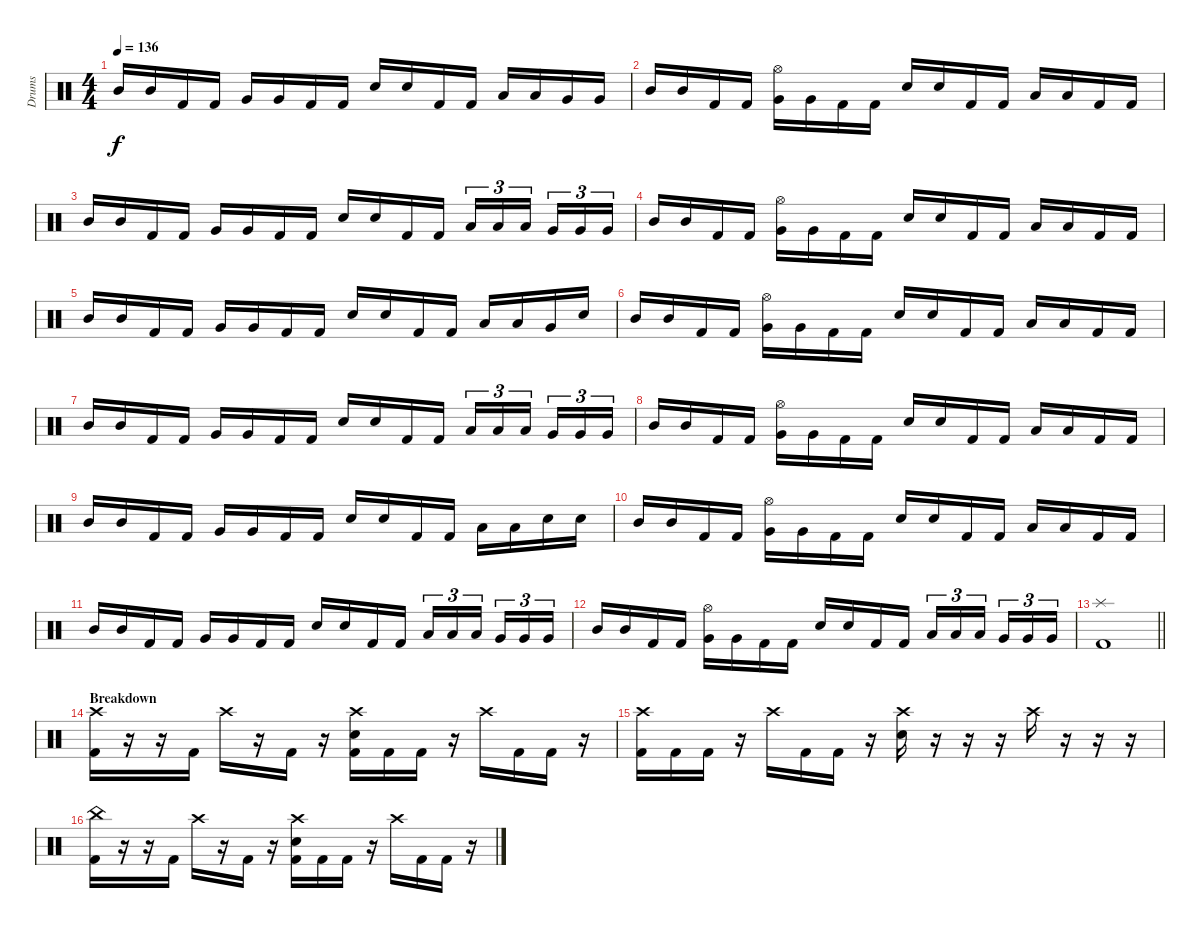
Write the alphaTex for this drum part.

\track ("Drums" "Drums") {instrument percussion}
\staff {score}
\articulation defaults
\ts (4 4)
\tempo 136
\clef neutral
\ks c "Mid Tom (hit)".16{dy f} "Mid Tom (hit)".16 "Kick (hit) 2".16 "Kick (hit) 2".16 "Very Low Tom (hit)".16 "Very Low Tom (hit)".16 "Kick (hit) 2".16 "Kick (hit) 2".16 "Electric Snare (hit)".16 "Electric Snare (hit)".16 "Kick (hit) 2".16 "Kick (hit) 2".16 "Low Tom (hit)".16 "Low Tom (hit)".16 "Very Low Tom (hit)".16 "Very Low Tom (hit)".16
|
"Mid Tom (hit)".16 "Mid Tom (hit)".16 "Kick (hit) 2".16 "Kick (hit) 2".16 ("Hi-Hat (open)" "Very Low Tom (hit)").16 "Very Low Tom (hit)".16 "Kick (hit) 2".16 "Kick (hit) 2".16 "Electric Snare (hit)".16 "Electric Snare (hit)".16 "Kick (hit) 2".16 "Kick (hit) 2".16 "Low Floor Tom (hit)".16 "Low Floor Tom (hit)".16 "Kick (hit) 2".16 "Kick (hit) 2".16 |
"Mid Tom (hit)".16 "Mid Tom (hit)".16 "Kick (hit) 2".16 "Kick (hit) 2".16 "Very Low Tom (hit)".16 "Very Low Tom (hit)".16 "Kick (hit) 2".16 "Kick (hit) 2".16 "Electric Snare (hit)".16 "Electric Snare (hit)".16 "Kick (hit) 2".16 "Kick (hit) 2".16 "Low Tom (hit)".16{tu (3 2)} "Low Tom (hit)".16{tu (3 2)} "Low Tom (hit)".16{tu (3 2) beam splitsecondary} "Very Low Tom (hit)".16{tu (3 2)} "Very Low Tom (hit)".16{tu (3 2)} "Very Low Tom (hit)".16{tu (3 2)} |
"Mid Tom (hit)".16 "Mid Tom (hit)".16 "Kick (hit) 2".16 "Kick (hit) 2".16 ("Hi-Hat (open)" "Very Low Tom (hit)").16 "Very Low Tom (hit)".16 "Kick (hit) 2".16 "Kick (hit) 2".16 "Electric Snare (hit)".16 "Electric Snare (hit)".16 "Kick (hit) 2".16 "Kick (hit) 2".16 "Low Floor Tom (hit)".16 "Low Floor Tom (hit)".16 "Kick (hit) 2".16 "Kick (hit) 2".16 |
"Mid Tom (hit)".16 "Mid Tom (hit)".16 "Kick (hit) 2".16 "Kick (hit) 2".16 "Very Low Tom (hit)".16 "Very Low Tom (hit)".16 "Kick (hit) 2".16 "Kick (hit) 2".16 "Electric Snare (hit)".16 "Electric Snare (hit)".16 "Kick (hit) 2".16 "Kick (hit) 2".16 "Low Tom (hit)".16 "Low Tom (hit)".16 "Very Low Tom (hit)".16 "Electric Snare (hit)".16 |
"Mid Tom (hit)".16 "Mid Tom (hit)".16 "Kick (hit) 2".16 "Kick (hit) 2".16 ("Hi-Hat (open)" "Very Low Tom (hit)").16 "Very Low Tom (hit)".16 "Kick (hit) 2".16 "Kick (hit) 2".16 "Electric Snare (hit)".16 "Electric Snare (hit)".16 "Kick (hit) 2".16 "Kick (hit) 2".16 "Low Floor Tom (hit)".16 "Low Floor Tom (hit)".16 "Kick (hit) 2".16 "Kick (hit) 2".16 |
"Mid Tom (hit)".16 "Mid Tom (hit)".16 "Kick (hit) 2".16 "Kick (hit) 2".16 "Very Low Tom (hit)".16 "Very Low Tom (hit)".16 "Kick (hit) 2".16 "Kick (hit) 2".16 "Electric Snare (hit)".16 "Electric Snare (hit)".16 "Kick (hit) 2".16 "Kick (hit) 2".16 "Low Tom (hit)".16{tu (3 2)} "Low Tom (hit)".16{tu (3 2)} "Low Tom (hit)".16{tu (3 2) beam splitsecondary} "Very Low Tom (hit)".16{tu (3 2)} "Very Low Tom (hit)".16{tu (3 2)} "Very Low Tom (hit)".16{tu (3 2)} |
"Mid Tom (hit)".16 "Mid Tom (hit)".16 "Kick (hit) 2".16 "Kick (hit) 2".16 ("Hi-Hat (open)" "Very Low Tom (hit)").16 "Very Low Tom (hit)".16 "Kick (hit) 2".16 "Kick (hit) 2".16 "Electric Snare (hit)".16 "Electric Snare (hit)".16 "Kick (hit) 2".16 "Kick (hit) 2".16 "Low Floor Tom (hit)".16 "Low Floor Tom (hit)".16 "Kick (hit) 2".16 "Kick (hit) 2".16 |
"Mid Tom (hit)".16 "Mid Tom (hit)".16 "Kick (hit) 2".16 "Kick (hit) 2".16 "Very Low Tom (hit)".16 "Very Low Tom (hit)".16 "Kick (hit) 2".16 "Kick (hit) 2".16 "Electric Snare (hit)".16 "Electric Snare (hit)".16 "Kick (hit) 2".16 "Kick (hit) 2".16 "Low Tom (hit)".16 "Low Tom (hit)".16 "Electric Snare (hit)".16 "Electric Snare (hit)".16 |
"Mid Tom (hit)".16 "Mid Tom (hit)".16 "Kick (hit) 2".16 "Kick (hit) 2".16 ("Hi-Hat (open)" "Very Low Tom (hit)").16 "Very Low Tom (hit)".16 "Kick (hit) 2".16 "Kick (hit) 2".16 "Electric Snare (hit)".16 "Electric Snare (hit)".16 "Kick (hit) 2".16 "Kick (hit) 2".16 "Low Floor Tom (hit)".16 "Low Floor Tom (hit)".16 "Kick (hit) 2".16 "Kick (hit) 2".16 |
"Mid Tom (hit)".16 "Mid Tom (hit)".16 "Kick (hit) 2".16 "Kick (hit) 2".16 "Very Low Tom (hit)".16 "Very Low Tom (hit)".16 "Kick (hit) 2".16 "Kick (hit) 2".16 "Electric Snare (hit)".16 "Electric Snare (hit)".16 "Kick (hit) 2".16 "Kick (hit) 2".16 "Low Tom (hit)".16{tu (3 2)} "Low Tom (hit)".16{tu (3 2)} "Low Tom (hit)".16{tu (3 2) beam splitsecondary} "Very Low Tom (hit)".16{tu (3 2)} "Very Low Tom (hit)".16{tu (3 2)} "Very Low Tom (hit)".16{tu (3 2)} |
"Mid Tom (hit)".16 "Mid Tom (hit)".16 "Kick (hit) 2".16 "Kick (hit) 2".16 ("Hi-Hat (open)" "Very Low Tom (hit)").16 "Very Low Tom (hit)".16 "Kick (hit) 2".16 "Kick (hit) 2".16 "Electric Snare (hit)".16 "Electric Snare (hit)".16 "Kick (hit) 2".16 "Kick (hit) 2".16 "Low Tom (hit)".16{tu (3 2)} "Low Tom (hit)".16{tu (3 2)} "Low Tom (hit)".16{tu (3 2) beam splitsecondary} "Very Low Tom (hit)".16{tu (3 2)} "Very Low Tom (hit)".16{tu (3 2)} "Very Low Tom (hit)".16{tu (3 2)} |
\barLineRight lightlight
("Splash (hit)" "Kick (hit) 2").1 |
\section ("" "Breakdown")
("Crash high (hit)" "Kick (hit) 2").16 r.16 r.16 "Kick (hit) 2".16 "Crash high (hit)".16 r.16 "Kick (hit) 2".16 r.16 ("Crash high (hit)" "Electric Snare (hit)" "Kick (hit) 2").16 "Kick (hit) 2".16 "Kick (hit) 2".16 r.16 "Crash high (hit)".16 "Kick (hit) 2".16 "Kick (hit) 2".16 r.16 |
("Crash high (hit)" "Kick (hit) 2").16 "Kick (hit) 2".16 "Kick (hit) 2".16 r.16 "Crash high (hit)".16 "Kick (hit) 2".16 "Kick (hit) 2".16 r.16 ("Crash high (hit)" "Electric Snare (hit)").16 r.16 r.16 r.16 "Crash high (hit)".16 r.16 r.16 r.16 |
("China (hit)" "Kick (hit) 2").16 r.16 r.16 "Kick (hit) 2".16 "Crash high (hit)".16 r.16 "Kick (hit) 2".16 r.16 ("Crash high (hit)" "Electric Snare (hit)" "Kick (hit) 2").16 "Kick (hit) 2".16 "Kick (hit) 2".16 r.16 "Crash high (hit)".16 "Kick (hit) 2".16 "Kick (hit) 2".16 r.16
